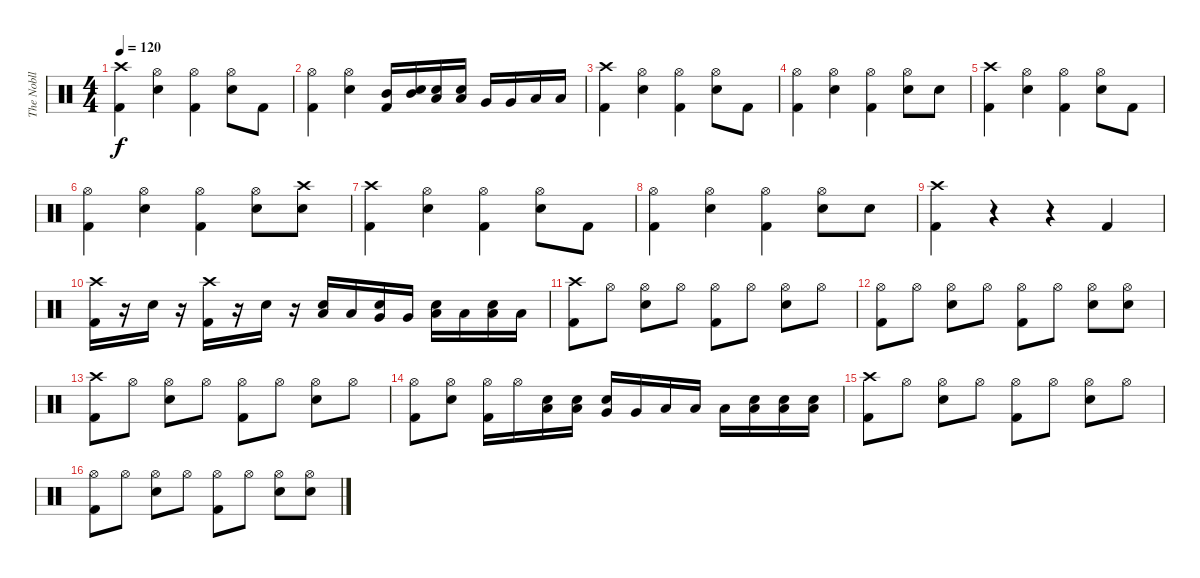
\track ("The Nobll" "The Nobll") {instrument percussion}
\staff {score}
\articulation defaults
\ts (4 4)
\tempo 120
\clef neutral
\ks c
("Crash high (hit)" "Kick (hit) 2").4{dy f} ("Hi-Hat (open)" "Snare (hit) 2").4 ("Hi-Hat (open)" "Kick (hit) 2").4 ("Hi-Hat (open)" "Snare (hit) 2").8 "Kick (hit) 2".8 |
("Hi-Hat (open)" "Kick (hit) 2").4 ("Hi-Hat (open)" "Snare (hit) 2").4 ("Mid Tom (hit)" "Kick (hit) 2").16 ("Mid Tom (hit)" "Snare (hit) 2").16 ("Low Tom (hit)" "Snare (hit) 2").16 ("Low Tom (hit)" "Snare (hit) 2").16 "Very Low Tom (hit)".16 "Very Low Tom (hit)".16 "Low Floor Tom (hit)".16 "Low Floor Tom (hit)".16 |
("Crash high (hit)" "Kick (hit) 2").4 ("Hi-Hat (open)" "Snare (hit) 2").4 ("Hi-Hat (open)" "Kick (hit) 2").4 ("Hi-Hat (open)" "Snare (hit) 2").8 "Kick (hit) 2".8 |
("Hi-Hat (open)" "Kick (hit) 2").4 ("Hi-Hat (open)" "Snare (hit) 2").4 ("Hi-Hat (open)" "Kick (hit) 2").4 ("Hi-Hat (open)" "Snare (hit) 2").8 "Snare (hit) 2".8 |
("Crash high (hit)" "Kick (hit) 2").4 ("Hi-Hat (open)" "Snare (hit) 2").4 ("Hi-Hat (open)" "Kick (hit) 2").4 ("Hi-Hat (open)" "Snare (hit) 2").8 "Kick (hit) 2".8 |
("Hi-Hat (open)" "Kick (hit) 2").4 ("Hi-Hat (open)" "Snare (hit) 2").4 ("Hi-Hat (open)" "Kick (hit) 2").4 ("Hi-Hat (open)" "Snare (hit) 2").8 ("Crash high (hit)" "Snare (hit) 2").8 |
("Crash high (hit)" "Kick (hit) 2").4 ("Hi-Hat (open)" "Snare (hit) 2").4 ("Hi-Hat (open)" "Kick (hit) 2").4 ("Hi-Hat (open)" "Snare (hit) 2").8 "Kick (hit) 2".8 |
("Hi-Hat (open)" "Kick (hit) 2").4 ("Hi-Hat (open)" "Snare (hit) 2").4 ("Hi-Hat (open)" "Kick (hit) 2").4 ("Hi-Hat (open)" "Snare (hit) 2").8 "Snare (hit) 2".8 |
("Crash high (hit)" "Kick (hit) 2").4 r.4 r.4 "Kick (hit) 2".4 |
("Crash high (hit)" "Kick (hit) 2").16 r.16 "Snare (hit) 2".16 r.16 ("Crash high (hit)" "Kick (hit) 2").16 r.16 "Snare (hit) 2".16 r.16 ("Low Tom (hit)" "Snare (hit) 2").16 "Low Tom (hit)".16 ("Very Low Tom (hit)" "Snare (hit) 2").16 "Very Low Tom (hit)".16 ("Low Floor Tom (hit)" "Snare (hit) 2").16 "Low Floor Tom (hit)".16 ("Low Floor Tom (hit)" "Snare (hit) 2").16 "Low Floor Tom (hit)".16 |
("Crash high (hit)" "Kick (hit) 2").8 "Hi-Hat (open)".8 ("Hi-Hat (open)" "Snare (hit) 2").8 "Hi-Hat (open)".8 ("Hi-Hat (open)" "Kick (hit) 2").8 "Hi-Hat (open)".8 ("Hi-Hat (open)" "Snare (hit) 2").8 "Hi-Hat (open)".8 |
("Hi-Hat (open)" "Kick (hit) 2").8 "Hi-Hat (open)".8 ("Hi-Hat (open)" "Snare (hit) 2").8 "Hi-Hat (open)".8 ("Hi-Hat (open)" "Kick (hit) 2").8 "Hi-Hat (open)".8 ("Hi-Hat (open)" "Snare (hit) 2").8 ("Hi-Hat (open)" "Snare (hit) 2").8 |
("Crash high (hit)" "Kick (hit) 2").8 "Hi-Hat (open)".8 ("Hi-Hat (open)" "Snare (hit) 2").8 "Hi-Hat (open)".8 ("Hi-Hat (open)" "Kick (hit) 2").8 "Hi-Hat (open)".8 ("Hi-Hat (open)" "Snare (hit) 2").8 "Hi-Hat (open)".8 |
("Hi-Hat (open)" "Kick (hit) 2").8 ("Hi-Hat (open)" "Snare (hit) 2").8 ("Hi-Hat (open)" "Kick (hit) 2").16 "Hi-Hat (open)".16 ("Low Tom (hit)" "Snare (hit) 2").16 ("Low Tom (hit)" "Snare (hit) 2").16 ("Very Low Tom (hit)" "Snare (hit) 2").16 "Very Low Tom (hit)".16 "Low Floor Tom (hit)".16 "Low Floor Tom (hit)".16 "Low Floor Tom (hit)".16 ("Low Floor Tom (hit)" "Snare (hit) 2").16 ("Low Floor Tom (hit)" "Snare (hit) 2").16 ("Low Floor Tom (hit)" "Snare (hit) 2").16 |
("Crash high (hit)" "Kick (hit) 2").8 "Hi-Hat (open)".8 ("Hi-Hat (open)" "Snare (hit) 2").8 "Hi-Hat (open)".8 ("Hi-Hat (open)" "Kick (hit) 2").8 "Hi-Hat (open)".8 ("Hi-Hat (open)" "Snare (hit) 2").8 "Hi-Hat (open)".8 |
("Hi-Hat (open)" "Kick (hit) 2").8 "Hi-Hat (open)".8 ("Hi-Hat (open)" "Snare (hit) 2").8 "Hi-Hat (open)".8 ("Hi-Hat (open)" "Kick (hit) 2").8 "Hi-Hat (open)".8 ("Hi-Hat (open)" "Snare (hit) 2").8 ("Hi-Hat (open)" "Snare (hit) 2").8
